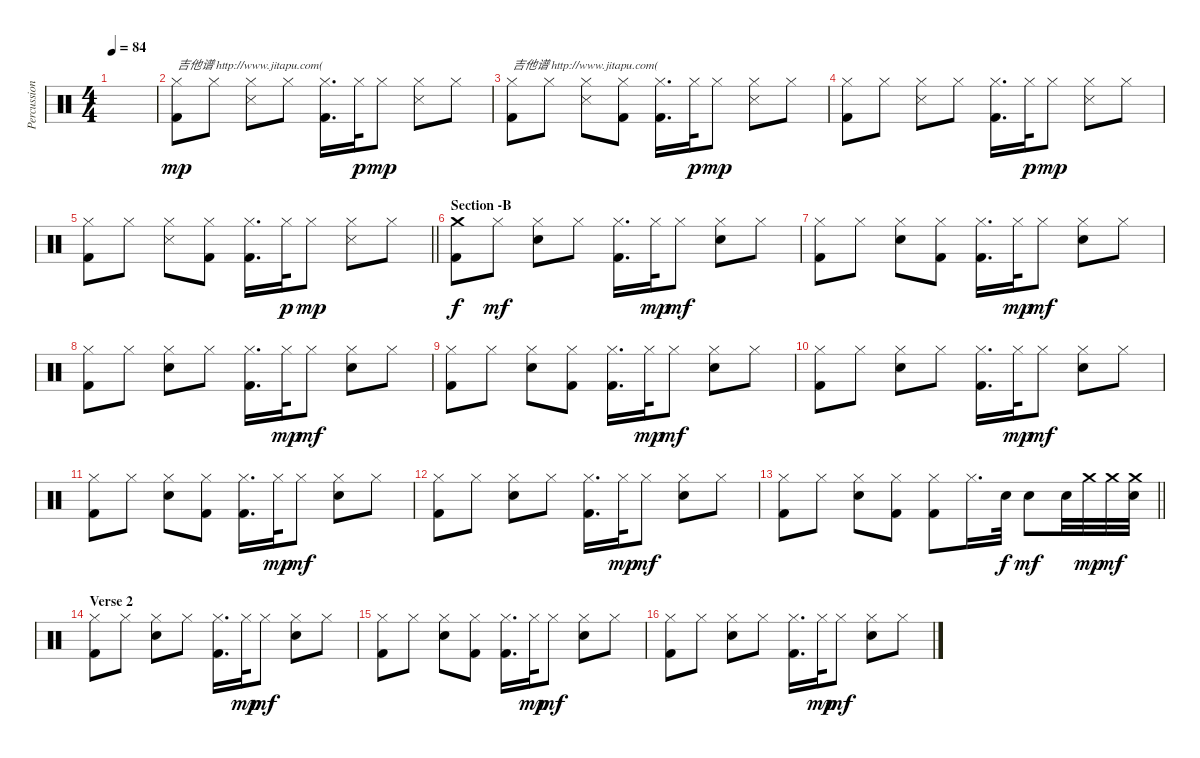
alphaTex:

\track ("Percussion" "Percussion") {instrument percussion}
\staff {score}
\articulation defaults
\ts (4 4)
\tempo 84
\clef neutral
\ks c
|
("Hi-Hat (closed)" "Kick (hit) 2").8{txt "吉他谱 http://www.jitapu.com(" dy mp} "Hi-Hat (closed)".8 ("Hi-Hat (closed)" "Snare (side stick) 3").8 "Hi-Hat (closed)".8 ("Hi-Hat (closed)" "Kick (hit) 2").16{d} "Hi-Hat (closed)".32{dy p} "Hi-Hat (closed)".8{dy mp} ("Hi-Hat (closed)" "Snare (side stick) 3").8 "Hi-Hat (closed)".8 |
("Hi-Hat (closed)" "Kick (hit) 2").8{txt "吉他谱 http://www.jitapu.com("} "Hi-Hat (closed)".8 ("Hi-Hat (closed)" "Snare (side stick) 3").8 ("Hi-Hat (closed)" "Kick (hit) 2").8 ("Hi-Hat (closed)" "Kick (hit) 2").16{d} "Hi-Hat (closed)".32{dy p} "Hi-Hat (closed)".8{dy mp} ("Hi-Hat (closed)" "Snare (side stick) 3").8 "Hi-Hat (closed)".8 |
("Hi-Hat (closed)" "Kick (hit) 2").8 "Hi-Hat (closed)".8 ("Hi-Hat (closed)" "Snare (side stick) 3").8 "Hi-Hat (closed)".8 ("Hi-Hat (closed)" "Kick (hit) 2").16{d} "Hi-Hat (closed)".32{dy p} "Hi-Hat (closed)".8{dy mp} ("Hi-Hat (closed)" "Snare (side stick) 3").8 "Hi-Hat (closed)".8 |
\barLineRight lightlight
("Hi-Hat (closed)" "Kick (hit) 2").8 "Hi-Hat (closed)".8 ("Hi-Hat (closed)" "Snare (side stick) 3").8 ("Hi-Hat (closed)" "Kick (hit) 2").8 ("Hi-Hat (closed)" "Kick (hit) 2").16{d} "Hi-Hat (closed)".32{dy p} "Hi-Hat (closed)".8{dy mp} ("Hi-Hat (closed)" "Snare (side stick) 3").8 "Hi-Hat (closed)".8 |
\section ("" "Section -B")
("Crash medium (hit)" "Kick (hit) 2").8{dy f} "Hi-Hat (closed)".8{dy mf} ("Hi-Hat (closed)" "Electric Snare (hit)").8 "Hi-Hat (closed)".8 ("Hi-Hat (closed)" "Kick (hit) 2").16{d} "Hi-Hat (closed)".32{dy mp} "Hi-Hat (closed)".8{dy mf} ("Hi-Hat (closed)" "Electric Snare (hit)").8 "Hi-Hat (closed)".8 |
("Hi-Hat (closed)" "Kick (hit) 2").8 "Hi-Hat (closed)".8 ("Hi-Hat (closed)" "Electric Snare (hit)").8 ("Hi-Hat (closed)" "Kick (hit) 2").8 ("Hi-Hat (closed)" "Kick (hit) 2").16{d} "Hi-Hat (closed)".32{dy mp} "Hi-Hat (closed)".8{dy mf} ("Hi-Hat (closed)" "Electric Snare (hit)").8 "Hi-Hat (closed)".8 |
("Hi-Hat (closed)" "Kick (hit) 2").8 "Hi-Hat (closed)".8 ("Hi-Hat (closed)" "Electric Snare (hit)").8 "Hi-Hat (closed)".8 ("Hi-Hat (closed)" "Kick (hit) 2").16{d} "Hi-Hat (closed)".32{dy mp} "Hi-Hat (closed)".8{dy mf} ("Hi-Hat (closed)" "Electric Snare (hit)").8 "Hi-Hat (closed)".8 |
("Hi-Hat (closed)" "Kick (hit) 2").8 "Hi-Hat (closed)".8 ("Hi-Hat (closed)" "Electric Snare (hit)").8 ("Hi-Hat (closed)" "Kick (hit) 2").8 ("Hi-Hat (closed)" "Kick (hit) 2").16{d} "Hi-Hat (closed)".32{dy mp} "Hi-Hat (closed)".8{dy mf} ("Hi-Hat (closed)" "Electric Snare (hit)").8 "Hi-Hat (closed)".8 |
("Hi-Hat (closed)" "Kick (hit) 2").8 "Hi-Hat (closed)".8 ("Hi-Hat (closed)" "Electric Snare (hit)").8 "Hi-Hat (closed)".8 ("Hi-Hat (closed)" "Kick (hit) 2").16{d} "Hi-Hat (closed)".32{dy mp} "Hi-Hat (closed)".8{dy mf} ("Hi-Hat (closed)" "Electric Snare (hit)").8 "Hi-Hat (closed)".8 |
("Hi-Hat (closed)" "Kick (hit) 2").8 "Hi-Hat (closed)".8 ("Hi-Hat (closed)" "Electric Snare (hit)").8 ("Hi-Hat (closed)" "Kick (hit) 2").8 ("Hi-Hat (closed)" "Kick (hit) 2").16{d} "Hi-Hat (closed)".32{dy mp} "Hi-Hat (closed)".8{dy mf} ("Hi-Hat (closed)" "Electric Snare (hit)").8 "Hi-Hat (closed)".8 |
("Hi-Hat (closed)" "Kick (hit) 2").8 "Hi-Hat (closed)".8 ("Hi-Hat (closed)" "Electric Snare (hit)").8 "Hi-Hat (closed)".8 ("Hi-Hat (closed)" "Kick (hit) 2").16{d} "Hi-Hat (closed)".32{dy mp} "Hi-Hat (closed)".8{dy mf} ("Hi-Hat (closed)" "Electric Snare (hit)").8 "Hi-Hat (closed)".8 |
\barLineRight lightlight
("Hi-Hat (closed)" "Kick (hit) 2").8 "Hi-Hat (closed)".8 ("Hi-Hat (closed)" "Electric Snare (hit)").8 ("Hi-Hat (closed)" "Kick (hit) 2").8 ("Hi-Hat (closed)" "Kick (hit) 2").8 "Hi-Hat (closed)".16{d} "Electric Snare (hit)".32{dy f} "Electric Snare (hit)".8{dy mf} "Electric Snare (hit)".32 "Crash medium (hit)".32{dy mp} "Crash medium (hit)".32{dy mf} ("Crash medium (hit)" "Electric Snare (hit)").32 |
\section ("" "Verse 2")
("Hi-Hat (closed)" "Kick (hit) 2").8 "Hi-Hat (closed)".8 ("Hi-Hat (closed)" "Electric Snare (hit)").8 "Hi-Hat (closed)".8 ("Hi-Hat (closed)" "Kick (hit) 2").16{d} "Hi-Hat (closed)".32{dy mp} "Hi-Hat (closed)".8{dy mf} ("Hi-Hat (closed)" "Electric Snare (hit)").8 "Hi-Hat (closed)".8 |
("Hi-Hat (closed)" "Kick (hit) 2").8 "Hi-Hat (closed)".8 ("Hi-Hat (closed)" "Electric Snare (hit)").8 ("Hi-Hat (closed)" "Kick (hit) 2").8 ("Hi-Hat (closed)" "Kick (hit) 2").16{d} "Hi-Hat (closed)".32{dy mp} "Hi-Hat (closed)".8{dy mf} ("Hi-Hat (closed)" "Electric Snare (hit)").8 "Hi-Hat (closed)".8 |
("Hi-Hat (closed)" "Kick (hit) 2").8 "Hi-Hat (closed)".8 ("Hi-Hat (closed)" "Electric Snare (hit)").8 "Hi-Hat (closed)".8 ("Hi-Hat (closed)" "Kick (hit) 2").16{d} "Hi-Hat (closed)".32{dy mp} "Hi-Hat (closed)".8{dy mf} ("Hi-Hat (closed)" "Electric Snare (hit)").8 "Hi-Hat (closed)".8
